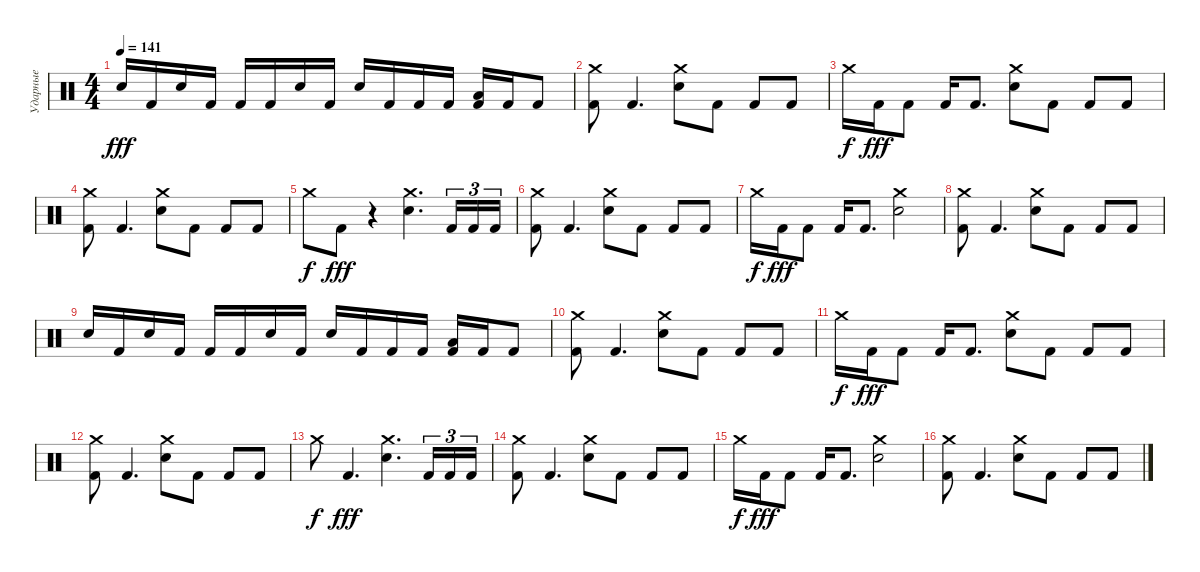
\track ("Ударные" "Ударные") {instrument percussion}
\staff {score}
\articulation defaults
\ts (4 4)
\tempo 141
\clef neutral
\ks c "Electric Snare (hit)".16{dy fff} "Kick (hit) 2".16 "Electric Snare (hit)".16 "Kick (hit) 2".16 "Kick (hit) 2".16 "Kick (hit) 2".16 "Electric Snare (hit)".16 "Kick (hit) 2".16 "Electric Snare (hit)".16 "Kick (hit) 2".16 "Kick (hit) 2".16 "Kick (hit) 2".16
("Low Tom (hit)" "Kick (hit) 2").16 "Kick (hit) 2".16 "Kick (hit) 2".8 |
("Crash medium (hit)" "Kick (hit) 2").8 "Kick (hit) 2".4{d} ("Crash medium (hit)" "Electric Snare (hit)").8 "Kick (hit) 2".8 "Kick (hit) 2".8 "Kick (hit) 2".8 |
"Crash medium (hit)".16{dy f} "Kick (hit) 2".16{dy fff} "Kick (hit) 2".8 "Kick (hit) 2".16 "Kick (hit) 2".8{d} ("Crash medium (hit)" "Electric Snare (hit)").8 "Kick (hit) 2".8 "Kick (hit) 2".8 "Kick (hit) 2".8 |
("Crash medium (hit)" "Kick (hit) 2").8 "Kick (hit) 2".4{d} ("Crash medium (hit)" "Electric Snare (hit)").8 "Kick (hit) 2".8 "Kick (hit) 2".8 "Kick (hit) 2".8 |
"Crash medium (hit)".8{dy f} "Kick (hit) 2".8{dy fff} r.4 ("Crash medium (hit)" "Electric Snare (hit)").4{d} "Kick (hit) 2".16{tu (3 2)} "Kick (hit) 2".16{tu (3 2)} "Kick (hit) 2".16{tu (3 2)} |
("Crash medium (hit)" "Kick (hit) 2").8 "Kick (hit) 2".4{d} ("Crash medium (hit)" "Electric Snare (hit)").8 "Kick (hit) 2".8 "Kick (hit) 2".8 "Kick (hit) 2".8 |
"Crash medium (hit)".16{dy f} "Kick (hit) 2".16{dy fff} "Kick (hit) 2".8 "Kick (hit) 2".16 "Kick (hit) 2".8{d} ("Crash medium (hit)" "Electric Snare (hit)").2 |
("Crash medium (hit)" "Kick (hit) 2").8 "Kick (hit) 2".4{d} ("Crash medium (hit)" "Electric Snare (hit)").8 "Kick (hit) 2".8 "Kick (hit) 2".8 "Kick (hit) 2".8 |
"Electric Snare (hit)".16 "Kick (hit) 2".16 "Electric Snare (hit)".16 "Kick (hit) 2".16 "Kick (hit) 2".16 "Kick (hit) 2".16 "Electric Snare (hit)".16 "Kick (hit) 2".16 "Electric Snare (hit)".16 "Kick (hit) 2".16 "Kick (hit) 2".16 "Kick (hit) 2".16 ("Low Tom (hit)" "Kick (hit) 2").16 "Kick (hit) 2".16 "Kick (hit) 2".8 |
("Crash medium (hit)" "Kick (hit) 2").8 "Kick (hit) 2".4{d} ("Crash medium (hit)" "Electric Snare (hit)").8 "Kick (hit) 2".8 "Kick (hit) 2".8 "Kick (hit) 2".8 |
"Crash medium (hit)".16{dy f} "Kick (hit) 2".16{dy fff} "Kick (hit) 2".8 "Kick (hit) 2".16 "Kick (hit) 2".8{d} ("Crash medium (hit)" "Electric Snare (hit)").8 "Kick (hit) 2".8 "Kick (hit) 2".8 "Kick (hit) 2".8 |
("Crash medium (hit)" "Kick (hit) 2").8 "Kick (hit) 2".4{d} ("Crash medium (hit)" "Electric Snare (hit)").8 "Kick (hit) 2".8 "Kick (hit) 2".8 "Kick (hit) 2".8 |
"Crash medium (hit)".8{dy f} "Kick (hit) 2".4{d dy fff} ("Crash medium (hit)" "Electric Snare (hit)").4{d} "Kick (hit) 2".16{tu (3 2)} "Kick (hit) 2".16{tu (3 2)} "Kick (hit) 2".16{tu (3 2)} |
("Crash medium (hit)" "Kick (hit) 2").8 "Kick (hit) 2".4{d} ("Crash medium (hit)" "Electric Snare (hit)").8 "Kick (hit) 2".8 "Kick (hit) 2".8 "Kick (hit) 2".8 |
"Crash medium (hit)".16{dy f} "Kick (hit) 2".16{dy fff} "Kick (hit) 2".8 "Kick (hit) 2".16 "Kick (hit) 2".8{d} ("Crash medium (hit)" "Electric Snare (hit)").2 |
("Crash medium (hit)" "Kick (hit) 2").8 "Kick (hit) 2".4{d} ("Crash medium (hit)" "Electric Snare (hit)").8 "Kick (hit) 2".8 "Kick (hit) 2".8 "Kick (hit) 2".8
